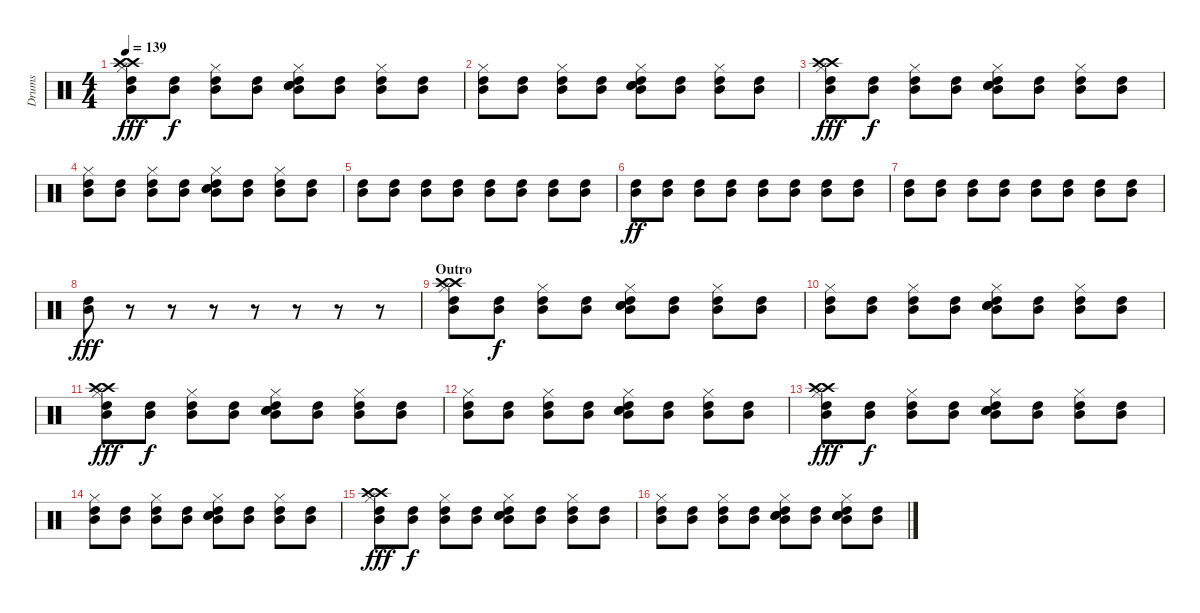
\track ("Drums" "Drums") {instrument percussion}
\staff {score}
\articulation defaults
\ts (4 4)
\tempo 139
\clef neutral
\ks c
("Hi-Hat (closed)" "Mid Tom (hit)" "High Tom (hit)" "Crash high (hit)" "Crash high (hit)").8{dy fff} ("Mid Tom (hit)" "High Tom (hit)").8{dy f} ("Hi-Hat (closed)" "Mid Tom (hit)" "High Tom (hit)").8 ("Mid Tom (hit)" "High Tom (hit)").8 ("Hi-Hat (closed)" "Mid Tom (hit)" "High Tom (hit)" "Electric Snare (hit)" "Electric Snare (hit)").8 ("Mid Tom (hit)" "High Tom (hit)").8 ("Hi-Hat (closed)" "Mid Tom (hit)" "High Tom (hit)").8 ("Mid Tom (hit)" "High Tom (hit)").8 |
("Hi-Hat (closed)" "Mid Tom (hit)" "High Tom (hit)").8 ("Mid Tom (hit)" "High Tom (hit)").8 ("Hi-Hat (closed)" "Mid Tom (hit)" "High Tom (hit)").8 ("Mid Tom (hit)" "High Tom (hit)").8 ("Hi-Hat (closed)" "Mid Tom (hit)" "High Tom (hit)" "Electric Snare (hit)" "Electric Snare (hit)").8 ("Mid Tom (hit)" "High Tom (hit)").8 ("Hi-Hat (closed)" "Mid Tom (hit)" "High Tom (hit)").8 ("Mid Tom (hit)" "High Tom (hit)").8 |
("Hi-Hat (closed)" "Mid Tom (hit)" "High Tom (hit)" "Crash high (hit)" "Crash high (hit)").8{dy fff} ("Mid Tom (hit)" "High Tom (hit)").8{dy f} ("Hi-Hat (closed)" "Mid Tom (hit)" "High Tom (hit)").8 ("Mid Tom (hit)" "High Tom (hit)").8 ("Hi-Hat (closed)" "Mid Tom (hit)" "High Tom (hit)" "Electric Snare (hit)" "Electric Snare (hit)").8 ("Mid Tom (hit)" "High Tom (hit)").8 ("Hi-Hat (closed)" "Mid Tom (hit)" "High Tom (hit)").8 ("Mid Tom (hit)" "High Tom (hit)").8 |
("Hi-Hat (closed)" "Mid Tom (hit)" "High Tom (hit)").8 ("Mid Tom (hit)" "High Tom (hit)").8 ("Hi-Hat (closed)" "Mid Tom (hit)" "High Tom (hit)").8 ("Mid Tom (hit)" "High Tom (hit)").8 ("Hi-Hat (closed)" "Mid Tom (hit)" "High Tom (hit)" "Electric Snare (hit)" "Electric Snare (hit)").8 ("Mid Tom (hit)" "High Tom (hit)").8 ("Hi-Hat (closed)" "Mid Tom (hit)" "High Tom (hit)").8 ("Mid Tom (hit)" "High Tom (hit)").8 |
("Mid Tom (hit)" "High Tom (hit)").8 ("Mid Tom (hit)" "High Tom (hit)").8 ("Mid Tom (hit)" "High Tom (hit)").8 ("Mid Tom (hit)" "High Tom (hit)").8 ("Mid Tom (hit)" "High Tom (hit)").8 ("Mid Tom (hit)" "High Tom (hit)").8 ("Mid Tom (hit)" "High Tom (hit)").8 ("Mid Tom (hit)" "High Tom (hit)").8 |
("Mid Tom (hit)" "High Tom (hit)").8{dy ff} ("Mid Tom (hit)" "High Tom (hit)").8 ("Mid Tom (hit)" "High Tom (hit)").8 ("Mid Tom (hit)" "High Tom (hit)").8 ("Mid Tom (hit)" "High Tom (hit)").8 ("Mid Tom (hit)" "High Tom (hit)").8 ("Mid Tom (hit)" "High Tom (hit)").8 ("Mid Tom (hit)" "High Tom (hit)").8 |
("Mid Tom (hit)" "High Tom (hit)").8 ("Mid Tom (hit)" "High Tom (hit)").8 ("Mid Tom (hit)" "High Tom (hit)").8 ("Mid Tom (hit)" "High Tom (hit)").8 ("Mid Tom (hit)" "High Tom (hit)").8 ("Mid Tom (hit)" "High Tom (hit)").8 ("Mid Tom (hit)" "High Tom (hit)").8 ("Mid Tom (hit)" "High Tom (hit)").8 |
("Mid Tom (hit)" "High Tom (hit)").8{dy fff} r.8 r.8 r.8 r.8 r.8 r.8 r.8 |
\section ("" "Outro")
("Hi-Hat (closed)" "Mid Tom (hit)" "High Tom (hit)" "Crash high (hit)" "Crash high (hit)").8 ("Mid Tom (hit)" "High Tom (hit)").8{dy f} ("Hi-Hat (closed)" "Mid Tom (hit)" "High Tom (hit)").8 ("Mid Tom (hit)" "High Tom (hit)").8 ("Hi-Hat (closed)" "Mid Tom (hit)" "High Tom (hit)" "Electric Snare (hit)" "Electric Snare (hit)").8 ("Mid Tom (hit)" "High Tom (hit)").8 ("Hi-Hat (closed)" "Mid Tom (hit)" "High Tom (hit)").8 ("Mid Tom (hit)" "High Tom (hit)").8 |
("Hi-Hat (closed)" "Mid Tom (hit)" "High Tom (hit)").8 ("Mid Tom (hit)" "High Tom (hit)").8 ("Hi-Hat (closed)" "Mid Tom (hit)" "High Tom (hit)").8 ("Mid Tom (hit)" "High Tom (hit)").8 ("Hi-Hat (closed)" "Mid Tom (hit)" "High Tom (hit)" "Electric Snare (hit)" "Electric Snare (hit)").8 ("Mid Tom (hit)" "High Tom (hit)").8 ("Hi-Hat (closed)" "Mid Tom (hit)" "High Tom (hit)").8 ("Mid Tom (hit)" "High Tom (hit)").8 |
("Hi-Hat (closed)" "Mid Tom (hit)" "High Tom (hit)" "Crash high (hit)" "Crash high (hit)").8{dy fff} ("Mid Tom (hit)" "High Tom (hit)").8{dy f} ("Hi-Hat (closed)" "Mid Tom (hit)" "High Tom (hit)").8 ("Mid Tom (hit)" "High Tom (hit)").8 ("Hi-Hat (closed)" "Mid Tom (hit)" "High Tom (hit)" "Electric Snare (hit)" "Electric Snare (hit)").8 ("Mid Tom (hit)" "High Tom (hit)").8 ("Hi-Hat (closed)" "Mid Tom (hit)" "High Tom (hit)").8 ("Mid Tom (hit)" "High Tom (hit)").8 |
("Hi-Hat (closed)" "Mid Tom (hit)" "High Tom (hit)").8 ("Mid Tom (hit)" "High Tom (hit)").8 ("Hi-Hat (closed)" "Mid Tom (hit)" "High Tom (hit)").8 ("Mid Tom (hit)" "High Tom (hit)").8 ("Hi-Hat (closed)" "Mid Tom (hit)" "High Tom (hit)" "Electric Snare (hit)" "Electric Snare (hit)").8 ("Mid Tom (hit)" "High Tom (hit)").8 ("Hi-Hat (closed)" "Mid Tom (hit)" "High Tom (hit)").8 ("Mid Tom (hit)" "High Tom (hit)").8 |
("Hi-Hat (closed)" "Mid Tom (hit)" "High Tom (hit)" "Crash high (hit)" "Crash high (hit)").8{dy fff} ("Mid Tom (hit)" "High Tom (hit)").8{dy f} ("Hi-Hat (closed)" "Mid Tom (hit)" "High Tom (hit)").8 ("Mid Tom (hit)" "High Tom (hit)").8 ("Hi-Hat (closed)" "Mid Tom (hit)" "High Tom (hit)" "Electric Snare (hit)" "Electric Snare (hit)").8 ("Mid Tom (hit)" "High Tom (hit)").8 ("Hi-Hat (closed)" "Mid Tom (hit)" "High Tom (hit)").8 ("Mid Tom (hit)" "High Tom (hit)").8 |
("Hi-Hat (closed)" "Mid Tom (hit)" "High Tom (hit)").8 ("Mid Tom (hit)" "High Tom (hit)").8 ("Hi-Hat (closed)" "Mid Tom (hit)" "High Tom (hit)").8 ("Mid Tom (hit)" "High Tom (hit)").8 ("Hi-Hat (closed)" "Mid Tom (hit)" "High Tom (hit)" "Electric Snare (hit)" "Electric Snare (hit)").8 ("Mid Tom (hit)" "High Tom (hit)").8 ("Hi-Hat (closed)" "Mid Tom (hit)" "High Tom (hit)").8 ("Mid Tom (hit)" "High Tom (hit)").8 |
("Hi-Hat (closed)" "Mid Tom (hit)" "High Tom (hit)" "Crash high (hit)" "Crash high (hit)").8{dy fff} ("Mid Tom (hit)" "High Tom (hit)").8{dy f} ("Hi-Hat (closed)" "Mid Tom (hit)" "High Tom (hit)").8 ("Mid Tom (hit)" "High Tom (hit)").8 ("Hi-Hat (closed)" "Mid Tom (hit)" "High Tom (hit)" "Electric Snare (hit)" "Electric Snare (hit)").8 ("Mid Tom (hit)" "High Tom (hit)").8 ("Hi-Hat (closed)" "Mid Tom (hit)" "High Tom (hit)").8 ("Mid Tom (hit)" "High Tom (hit)").8 |
("Hi-Hat (closed)" "Mid Tom (hit)" "High Tom (hit)").8 ("Mid Tom (hit)" "High Tom (hit)").8 ("Hi-Hat (closed)" "Mid Tom (hit)" "High Tom (hit)").8 ("Mid Tom (hit)" "High Tom (hit)").8 ("Hi-Hat (closed)" "Mid Tom (hit)" "High Tom (hit)" "Electric Snare (hit)" "Electric Snare (hit)").8 ("Mid Tom (hit)" "High Tom (hit)").8 ("Hi-Hat (closed)" "Mid Tom (hit)" "High Tom (hit)" "Electric Snare (hit)" "Electric Snare (hit)").8 ("Mid Tom (hit)" "High Tom (hit)").8
